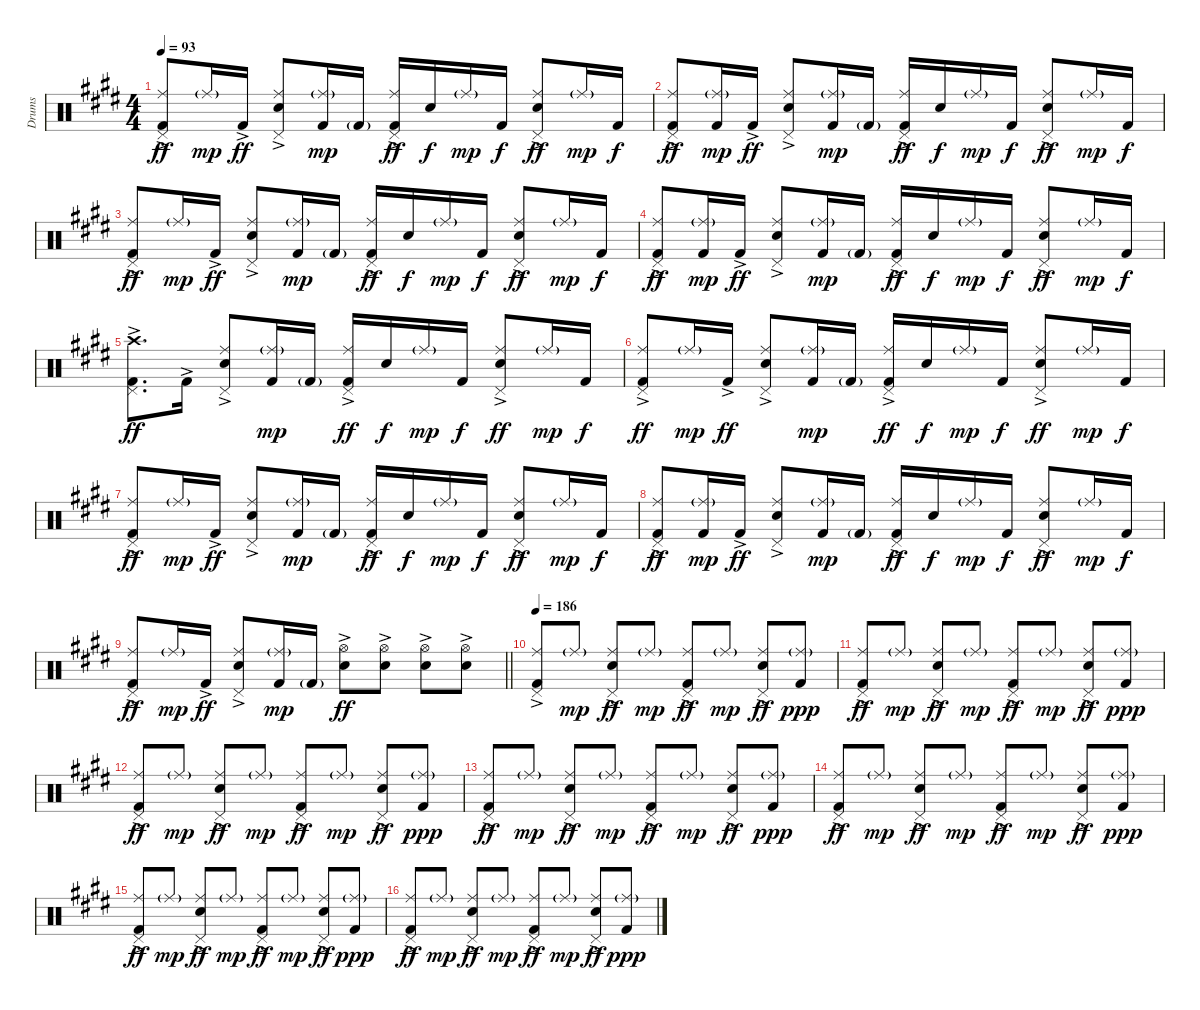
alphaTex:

\track ("Drums" "Drums") {instrument percussion}
\staff {score}
\articulation defaults
\ts (4 4)
\tempo 93
\clef neutral
\ks e
("Pedal Hi-Hat (hit)" "Ride (middle)" "Kick (hit) 2"{ac}).8{dy ff} "Ride (middle)"{g}.16{dy mp} "Kick (hit) 2"{ac}.16{dy ff} ("Pedal Hi-Hat (hit)" "Ride (middle)" "Snare (hit) 2"{ac}).8 ("Ride (middle)"{g} "Kick (hit) 2").16{dy mp} "Kick (hit) 2"{g}.16 ("Pedal Hi-Hat (hit)" "Ride (middle)" "Kick (hit) 2"{ac}).16{dy ff} "Snare (hit) 2".16{dy f} "Ride (middle)"{g}.16{dy mp} "Kick (hit) 2".16{dy f} ("Pedal Hi-Hat (hit)" "Ride (middle)" "Snare (hit) 2"{ac}).8{dy ff} "Ride (middle)"{g}.16{dy mp} "Kick (hit) 2".16{dy f} |
("Pedal Hi-Hat (hit)" "Ride (middle)" "Kick (hit) 2"{ac}).8{dy ff} ("Ride (middle)"{g} "Kick (hit) 2").16{dy mp} "Kick (hit) 2"{ac}.16{dy ff} ("Pedal Hi-Hat (hit)" "Ride (middle)" "Snare (hit) 2"{ac}).8 ("Ride (middle)"{g} "Kick (hit) 2").16{dy mp} "Kick (hit) 2"{g}.16 ("Pedal Hi-Hat (hit)" "Ride (middle)" "Kick (hit) 2"{ac}).16{dy ff} "Snare (hit) 2".16{dy f} "Ride (middle)"{g}.16{dy mp} "Kick (hit) 2".16{dy f} ("Pedal Hi-Hat (hit)" "Ride (middle)" "Snare (hit) 2"{ac}).8{dy ff} "Ride (middle)"{g}.16{dy mp} "Kick (hit) 2".16{dy f} |
("Pedal Hi-Hat (hit)" "Ride (middle)" "Kick (hit) 2"{ac}).8{dy ff} "Ride (middle)"{g}.16{dy mp} "Kick (hit) 2"{ac}.16{dy ff} ("Pedal Hi-Hat (hit)" "Ride (middle)" "Snare (hit) 2"{ac}).8 ("Ride (middle)"{g} "Kick (hit) 2").16{dy mp} "Kick (hit) 2"{g}.16 ("Pedal Hi-Hat (hit)" "Ride (middle)" "Kick (hit) 2"{ac}).16{dy ff} "Snare (hit) 2".16{dy f} "Ride (middle)"{g}.16{dy mp} "Kick (hit) 2".16{dy f} ("Pedal Hi-Hat (hit)" "Ride (middle)" "Snare (hit) 2"{ac}).8{dy ff} "Ride (middle)"{g}.16{dy mp} "Kick (hit) 2".16{dy f} |
("Pedal Hi-Hat (hit)" "Ride (middle)" "Kick (hit) 2"{ac}).8{dy ff} ("Ride (middle)"{g} "Kick (hit) 2").16{dy mp} "Kick (hit) 2"{ac}.16{dy ff} ("Pedal Hi-Hat (hit)" "Ride (middle)" "Snare (hit) 2"{ac}).8 ("Ride (middle)"{g} "Kick (hit) 2").16{dy mp} "Kick (hit) 2"{g}.16 ("Pedal Hi-Hat (hit)" "Ride (middle)" "Kick (hit) 2"{ac}).16{dy ff} "Snare (hit) 2".16{dy f} "Ride (middle)"{g}.16{dy mp} "Kick (hit) 2".16{dy f} ("Pedal Hi-Hat (hit)" "Ride (middle)" "Snare (hit) 2"{ac}).8{dy ff} "Ride (middle)"{g}.16{dy mp} "Kick (hit) 2".16{dy f} |
("Pedal Hi-Hat (hit)" "Crash high (hit)" "Kick (hit) 2"{ac}).8{d dy ff} "Kick (hit) 2"{ac}.16 ("Pedal Hi-Hat (hit)" "Ride (middle)" "Snare (hit) 2"{ac}).8 ("Ride (middle)"{g} "Kick (hit) 2").16{dy mp} "Kick (hit) 2"{g}.16 ("Pedal Hi-Hat (hit)" "Ride (middle)" "Kick (hit) 2"{ac}).16{dy ff} "Snare (hit) 2".16{dy f} "Ride (middle)"{g}.16{dy mp} "Kick (hit) 2".16{dy f} ("Pedal Hi-Hat (hit)" "Ride (middle)" "Snare (hit) 2"{ac}).8{dy ff} "Ride (middle)"{g}.16{dy mp} "Kick (hit) 2".16{dy f} |
("Pedal Hi-Hat (hit)" "Ride (middle)" "Kick (hit) 2"{ac}).8{dy ff} "Ride (middle)"{g}.16{dy mp} "Kick (hit) 2"{ac}.16{dy ff} ("Pedal Hi-Hat (hit)" "Ride (middle)" "Snare (hit) 2"{ac}).8 ("Ride (middle)"{g} "Kick (hit) 2").16{dy mp} "Kick (hit) 2"{g}.16 ("Pedal Hi-Hat (hit)" "Ride (middle)" "Kick (hit) 2"{ac}).16{dy ff} "Snare (hit) 2".16{dy f} "Ride (middle)"{g}.16{dy mp} "Kick (hit) 2".16{dy f} ("Pedal Hi-Hat (hit)" "Ride (middle)" "Snare (hit) 2"{ac}).8{dy ff} "Ride (middle)"{g}.16{dy mp} "Kick (hit) 2".16{dy f} |
("Pedal Hi-Hat (hit)" "Ride (middle)" "Kick (hit) 2"{ac}).8{dy ff} "Ride (middle)"{g}.16{dy mp} "Kick (hit) 2"{ac}.16{dy ff} ("Pedal Hi-Hat (hit)" "Ride (middle)" "Snare (hit) 2"{ac}).8 ("Ride (middle)"{g} "Kick (hit) 2").16{dy mp} "Kick (hit) 2"{g}.16 ("Pedal Hi-Hat (hit)" "Ride (middle)" "Kick (hit) 2"{ac}).16{dy ff} "Snare (hit) 2".16{dy f} "Ride (middle)"{g}.16{dy mp} "Kick (hit) 2".16{dy f} ("Pedal Hi-Hat (hit)" "Ride (middle)" "Snare (hit) 2"{ac}).8{dy ff} "Ride (middle)"{g}.16{dy mp} "Kick (hit) 2".16{dy f} |
("Pedal Hi-Hat (hit)" "Ride (middle)" "Kick (hit) 2"{ac}).8{dy ff} ("Ride (middle)"{g} "Kick (hit) 2").16{dy mp} "Kick (hit) 2"{ac}.16{dy ff} ("Pedal Hi-Hat (hit)" "Ride (middle)" "Snare (hit) 2"{ac}).8 ("Ride (middle)"{g} "Kick (hit) 2").16{dy mp} "Kick (hit) 2"{g}.16 ("Pedal Hi-Hat (hit)" "Ride (middle)" "Kick (hit) 2"{ac}).16{dy ff} "Snare (hit) 2".16{dy f} "Ride (middle)"{g}.16{dy mp} "Kick (hit) 2".16{dy f} ("Pedal Hi-Hat (hit)" "Ride (middle)" "Snare (hit) 2"{ac}).8{dy ff} "Ride (middle)"{g}.16{dy mp} "Kick (hit) 2".16{dy f} |
\barLineRight lightlight
("Pedal Hi-Hat (hit)" "Ride (middle)" "Kick (hit) 2"{ac}).8{dy ff} "Ride (middle)"{g}.16{dy mp} "Kick (hit) 2"{ac}.16{dy ff} ("Pedal Hi-Hat (hit)" "Ride (middle)" "Snare (hit) 2"{ac}).8 ("Ride (middle)"{g} "Kick (hit) 2").16{dy mp} "Kick (hit) 2"{g}.16 ("Hi-Hat (open)"{ac} "Snare (hit) 2"{ac}).8{dy ff} ("Hi-Hat (open)"{ac} "Snare (hit) 2"{ac}).8 ("Hi-Hat (open)"{ac} "Snare (hit) 2"{ac}).8 ("Hi-Hat (open)"{ac} "Snare (hit) 2"{ac}).8 |
\tempo 186
("Pedal Hi-Hat (hit)" "Ride (middle)" "Kick (hit) 2"{ac}).8 "Ride (middle)"{g}.8{dy mp} ("Pedal Hi-Hat (hit)" "Ride (middle)" "Snare (hit) 2"{ac}).8{dy ff} "Ride (middle)"{g}.8{dy mp} ("Pedal Hi-Hat (hit)" "Ride (middle)" "Kick (hit) 2"{ac}).8{dy ff} "Ride (middle)"{g}.8{dy mp} ("Pedal Hi-Hat (hit)" "Ride (middle)" "Snare (hit) 2"{ac}).8{dy ff} ("Ride (middle)"{g} "Kick (hit) 2").8{dy ppp} |
("Pedal Hi-Hat (hit)" "Ride (middle)" "Kick (hit) 2"{ac}).8{dy ff} "Ride (middle)"{g}.8{dy mp} ("Pedal Hi-Hat (hit)" "Ride (middle)" "Snare (hit) 2"{ac}).8{dy ff} "Ride (middle)"{g}.8{dy mp} ("Pedal Hi-Hat (hit)" "Ride (middle)" "Kick (hit) 2"{ac}).8{dy ff} "Ride (middle)"{g}.8{dy mp} ("Pedal Hi-Hat (hit)" "Ride (middle)" "Snare (hit) 2"{ac}).8{dy ff} ("Ride (middle)"{g} "Kick (hit) 2").8{dy ppp} |
("Pedal Hi-Hat (hit)" "Ride (middle)" "Kick (hit) 2"{ac}).8{dy ff} "Ride (middle)"{g}.8{dy mp} ("Pedal Hi-Hat (hit)" "Ride (middle)" "Snare (hit) 2"{ac}).8{dy ff} "Ride (middle)"{g}.8{dy mp} ("Pedal Hi-Hat (hit)" "Ride (middle)" "Kick (hit) 2"{ac}).8{dy ff} "Ride (middle)"{g}.8{dy mp} ("Pedal Hi-Hat (hit)" "Ride (middle)" "Snare (hit) 2"{ac}).8{dy ff} ("Ride (middle)"{g} "Kick (hit) 2").8{dy ppp} |
("Pedal Hi-Hat (hit)" "Ride (middle)" "Kick (hit) 2"{ac}).8{dy ff} "Ride (middle)"{g}.8{dy mp} ("Pedal Hi-Hat (hit)" "Ride (middle)" "Snare (hit) 2"{ac}).8{dy ff} "Ride (middle)"{g}.8{dy mp} ("Pedal Hi-Hat (hit)" "Ride (middle)" "Kick (hit) 2"{ac}).8{dy ff} "Ride (middle)"{g}.8{dy mp} ("Pedal Hi-Hat (hit)" "Ride (middle)" "Snare (hit) 2"{ac}).8{dy ff} ("Ride (middle)"{g} "Kick (hit) 2").8{dy ppp} |
("Pedal Hi-Hat (hit)" "Ride (middle)" "Kick (hit) 2"{ac}).8{dy ff} "Ride (middle)"{g}.8{dy mp} ("Pedal Hi-Hat (hit)" "Ride (middle)" "Snare (hit) 2"{ac}).8{dy ff} "Ride (middle)"{g}.8{dy mp} ("Pedal Hi-Hat (hit)" "Ride (middle)" "Kick (hit) 2"{ac}).8{dy ff} "Ride (middle)"{g}.8{dy mp} ("Pedal Hi-Hat (hit)" "Ride (middle)" "Snare (hit) 2"{ac}).8{dy ff} ("Ride (middle)"{g} "Kick (hit) 2").8{dy ppp} |
("Pedal Hi-Hat (hit)" "Ride (middle)" "Kick (hit) 2"{ac}).8{dy ff} "Ride (middle)"{g}.8{dy mp} ("Pedal Hi-Hat (hit)" "Ride (middle)" "Snare (hit) 2"{ac}).8{dy ff} "Ride (middle)"{g}.8{dy mp} ("Pedal Hi-Hat (hit)" "Ride (middle)" "Kick (hit) 2"{ac}).8{dy ff} "Ride (middle)"{g}.8{dy mp} ("Pedal Hi-Hat (hit)" "Ride (middle)" "Snare (hit) 2"{ac}).8{dy ff} ("Ride (middle)"{g} "Kick (hit) 2").8{dy ppp} |
("Pedal Hi-Hat (hit)" "Ride (middle)" "Kick (hit) 2"{ac}).8{dy ff} "Ride (middle)"{g}.8{dy mp} ("Pedal Hi-Hat (hit)" "Ride (middle)" "Snare (hit) 2"{ac}).8{dy ff} "Ride (middle)"{g}.8{dy mp} ("Pedal Hi-Hat (hit)" "Ride (middle)" "Kick (hit) 2"{ac}).8{dy ff} "Ride (middle)"{g}.8{dy mp} ("Pedal Hi-Hat (hit)" "Ride (middle)" "Snare (hit) 2"{ac}).8{dy ff} ("Ride (middle)"{g} "Kick (hit) 2").8{dy ppp}
